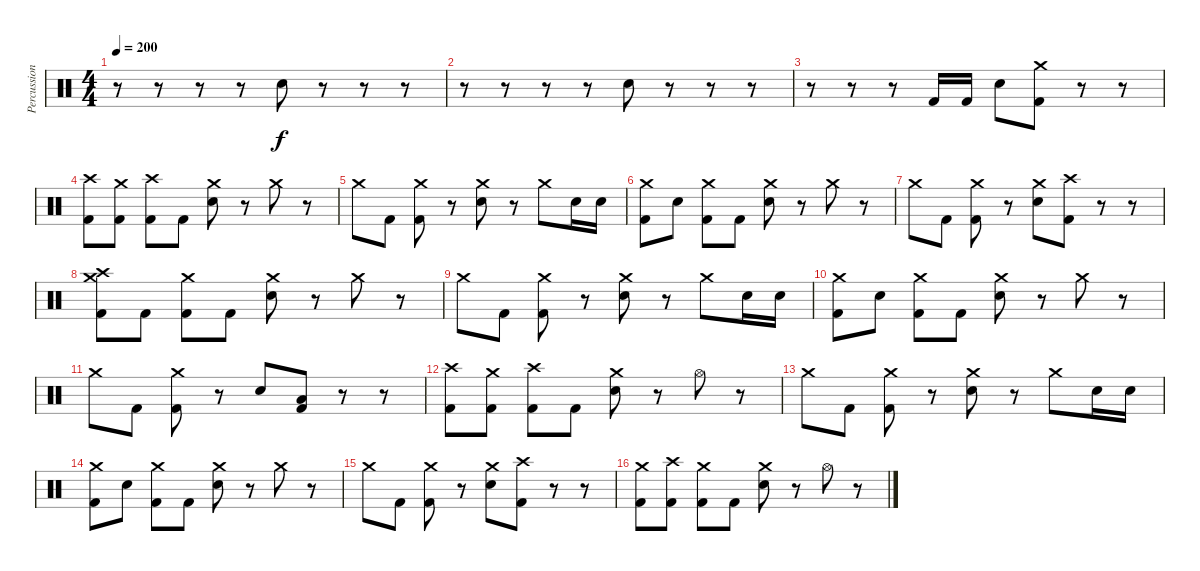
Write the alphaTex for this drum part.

\track ("Percussion" "Percussion") {instrument percussion}
\staff {score}
\articulation defaults
\ts (4 4)
\tempo 200
\clef neutral
\ks c
r.8{dy f} r.8 r.8 r.8 "Snare (hit) 2".8 r.8 r.8 r.8 |
r.8 r.8 r.8 r.8 "Snare (hit) 2".8 r.8 r.8 r.8 |
r.8 r.8 r.8 "Kick (hit) 2".16 "Kick (hit) 2".16 "Snare (hit) 2".8 ("Crash medium (hit)" "Kick (hit) 2").8 r.8 r.8 |
("Crash high (hit)" "Kick (hit) 2").8 ("Crash medium (hit)" "Kick (hit) 2").8 ("Crash high (hit)" "Kick (hit) 2").8 "Kick (hit) 2".8 ("Crash medium (hit)" "Snare (hit) 2").8 r.8 "Crash medium (hit)".8 r.8 |
"Crash medium (hit)".8 "Kick (hit) 2".8 ("Crash medium (hit)" "Kick (hit) 2").8 r.8 ("Crash medium (hit)" "Snare (hit) 2").8 r.8 "Crash medium (hit)".8 "Snare (hit) 2".16 "Snare (hit) 2".16 |
("Crash medium (hit)" "Kick (hit) 2").8 "Snare (hit) 2".8 ("Crash medium (hit)" "Kick (hit) 2").8 "Kick (hit) 2".8 ("Crash medium (hit)" "Snare (hit) 2").8 r.8 "Crash medium (hit)".8 r.8 |
"Crash medium (hit)".8 "Kick (hit) 2".8 ("Crash medium (hit)" "Kick (hit) 2").8 r.8 ("Crash medium (hit)" "Snare (hit) 2").8 ("Crash high (hit)" "Kick (hit) 2").8 r.8 r.8 |
("Crash high (hit)" "Crash medium (hit)" "Kick (hit) 2").8 "Kick (hit) 2".8 ("Crash medium (hit)" "Kick (hit) 2").8 "Kick (hit) 2".8 ("Crash medium (hit)" "Snare (hit) 2").8 r.8 "Crash medium (hit)".8 r.8 |
"Crash medium (hit)".8 "Kick (hit) 2".8 ("Crash medium (hit)" "Kick (hit) 2").8 r.8 ("Crash medium (hit)" "Snare (hit) 2").8 r.8 "Crash medium (hit)".8 "Snare (hit) 2".16 "Snare (hit) 2".16 |
("Crash medium (hit)" "Kick (hit) 2").8 "Snare (hit) 2".8 ("Crash medium (hit)" "Kick (hit) 2").8 "Kick (hit) 2".8 ("Crash medium (hit)" "Snare (hit) 2").8 r.8 "Crash medium (hit)".8 r.8 |
"Crash medium (hit)".8 "Kick (hit) 2".8 ("Crash medium (hit)" "Kick (hit) 2").8 r.8 "Snare (hit) 2".8 ("Low Floor Tom (hit)" "Kick (hit) 2").8 r.8 r.8 |
("Crash high (hit)" "Kick (hit) 2").8 ("Crash medium (hit)" "Kick (hit) 2").8 ("Crash high (hit)" "Kick (hit) 2").8 "Kick (hit) 2".8 ("Crash medium (hit)" "Snare (hit) 2").8 r.8 "Hi-Hat (open)".8 r.8 |
"Crash medium (hit)".8 "Kick (hit) 2".8 ("Crash medium (hit)" "Kick (hit) 2").8 r.8 ("Crash medium (hit)" "Snare (hit) 2").8 r.8 "Crash medium (hit)".8 "Snare (hit) 2".16 "Snare (hit) 2".16 |
("Crash medium (hit)" "Kick (hit) 2").8 "Snare (hit) 2".8 ("Crash medium (hit)" "Kick (hit) 2").8 "Kick (hit) 2".8 ("Crash medium (hit)" "Snare (hit) 2").8 r.8 "Crash medium (hit)".8 r.8 |
"Crash medium (hit)".8 "Kick (hit) 2".8 ("Crash medium (hit)" "Kick (hit) 2").8 r.8 ("Crash medium (hit)" "Snare (hit) 2").8 ("Crash high (hit)" "Kick (hit) 2").8 r.8 r.8 |
("Crash medium (hit)" "Kick (hit) 2").8 ("Crash high (hit)" "Kick (hit) 2").8 ("Crash medium (hit)" "Kick (hit) 2").8 "Kick (hit) 2".8 ("Crash medium (hit)" "Snare (hit) 2").8 r.8 "Hi-Hat (open)".8 r.8
